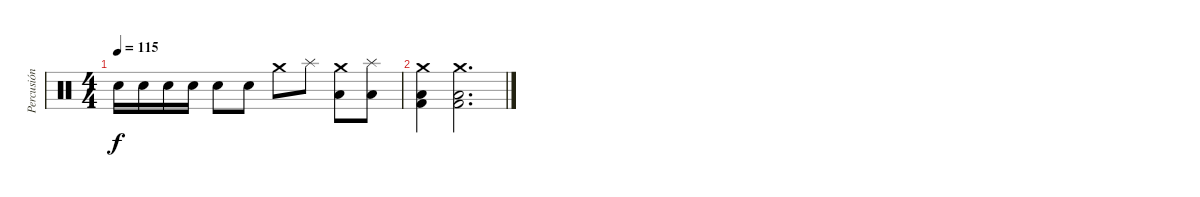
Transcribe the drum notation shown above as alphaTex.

\track ("Percusión" "Percusión") {instrument percussion}
\staff {score}
\articulation defaults
\ts (4 4)
\tempo 115
\clef neutral
\ks c "Snare (hit) 2".16{dy f} "Snare (hit) 2".16 "Snare (hit) 2".16 "Snare (hit) 2".16 "Snare (hit) 2".8 "Snare (hit) 2".8 "Crash medium (hit)".8 "Splash (hit)".8
("Crash medium (hit)" "Low Floor Tom (hit)").8 ("Splash (hit)" "Low Floor Tom (hit)").8 |
("Crash medium (hit)" "Low Floor Tom (hit)" "Kick (hit) 2").4 ("Crash medium (hit)" "Low Floor Tom (hit)" "Kick (hit) 2").2{d}
